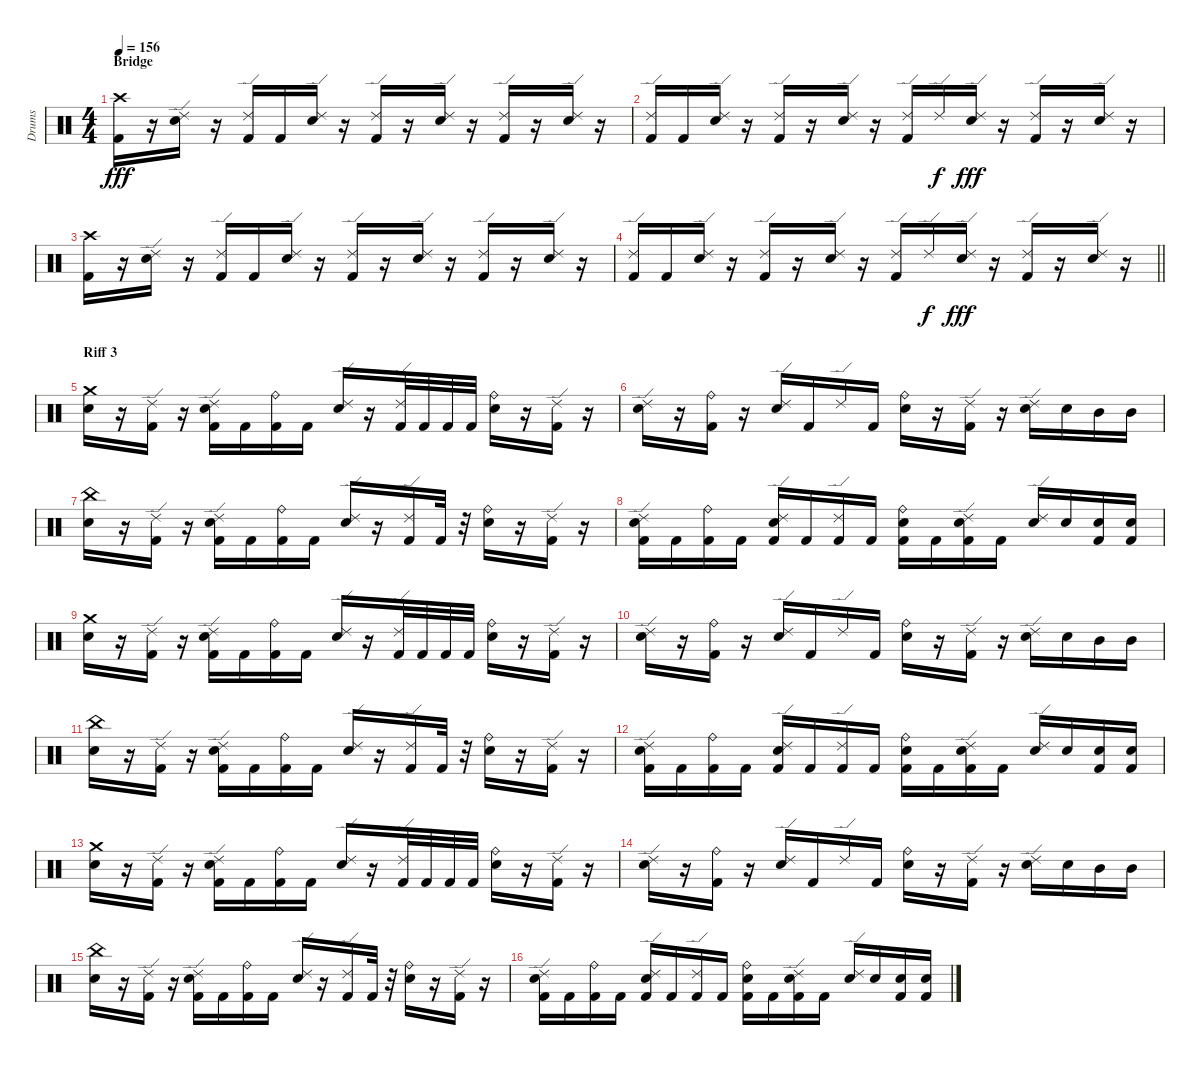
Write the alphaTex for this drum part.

\track ("Drums" "Drums") {instrument percussion}
\staff {score}
\articulation defaults
\ts (4 4)
\section ("" "Bridge")
\tempo 156
\clef neutral
\ks c
("Kick (hit) 2" "Crash high (hit)").16{dy fff} r.16 ("Snare (hit) 2" "Ride (edge) 2").16 r.16 ("Kick (hit) 2" "Ride (edge) 2").16 "Kick (hit) 2".16 ("Snare (hit) 2" "Ride (edge) 2").16 r.16 ("Kick (hit) 2" "Ride (edge) 2").16 r.16 ("Snare (hit) 2" "Ride (edge) 2").16 r.16 ("Kick (hit) 2" "Ride (edge) 2").16 r.16 ("Snare (hit) 2" "Ride (edge) 2").16 r.16 |
("Kick (hit) 2" "Ride (edge) 2").16 "Kick (hit) 2".16 ("Snare (hit) 2" "Ride (edge) 2").16 r.16 ("Kick (hit) 2" "Ride (edge) 2").16 r.16 ("Snare (hit) 2" "Ride (edge) 2").16 r.16 ("Kick (hit) 2" "Ride (edge) 2").16 "Ride (edge) 2".16{dy f} ("Snare (hit) 2" "Ride (edge) 2").16{dy fff} r.16 ("Kick (hit) 2" "Ride (edge) 2").16 r.16 ("Snare (hit) 2" "Ride (edge) 2").16 r.16 |
("Kick (hit) 2" "Crash high (hit)").16 r.16 ("Snare (hit) 2" "Ride (edge) 2").16 r.16 ("Kick (hit) 2" "Ride (edge) 2").16 "Kick (hit) 2".16 ("Snare (hit) 2" "Ride (edge) 2").16 r.16 ("Kick (hit) 2" "Ride (edge) 2").16 r.16 ("Snare (hit) 2" "Ride (edge) 2").16 r.16 ("Kick (hit) 2" "Ride (edge) 2").16 r.16 ("Snare (hit) 2" "Ride (edge) 2").16 r.16 |
\barLineRight lightlight
("Kick (hit) 2" "Ride (edge) 2").16 "Kick (hit) 2".16 ("Snare (hit) 2" "Ride (edge) 2").16 r.16 ("Kick (hit) 2" "Ride (edge) 2").16 r.16 ("Snare (hit) 2" "Ride (edge) 2").16 r.16 ("Kick (hit) 2" "Ride (edge) 2").16 "Ride (edge) 2".16{dy f} ("Snare (hit) 2" "Ride (edge) 2").16{dy fff} r.16 ("Kick (hit) 2" "Ride (edge) 2").16 r.16 ("Snare (hit) 2" "Ride (edge) 2").16 r.16 |
\section ("" "Riff 3")
("Snare (hit) 2" "Crash medium (hit)").16 r.16 ("Kick (hit) 2" "Ride (edge) 2").16 r.16 ("Kick (hit) 2" "Snare (hit) 2" "Ride (edge) 2").16 "Kick (hit) 2".16 ("Kick (hit) 2" "Ride (bell)").16 "Kick (hit) 2".16 ("Snare (hit) 2" "Ride (edge) 2").16 r.16 ("Kick (hit) 2" "Ride (edge) 2").32 "Kick (hit) 2".32 "Kick (hit) 2".32 "Kick (hit) 2".32 ("Snare (hit) 2" "Ride (bell)").16 r.16 ("Kick (hit) 2" "Ride (edge) 2").16 r.16 |
("Snare (hit) 2" "Ride (edge) 2").16 r.16 ("Kick (hit) 2" "Ride (bell)").16 r.16 ("Snare (hit) 2" "Ride (edge) 2").16 "Kick (hit) 2".16 "Ride (edge) 2".16 "Kick (hit) 2".16 ("Snare (hit) 2" "Ride (bell)").16 r.16 ("Kick (hit) 2" "Ride (edge) 2").16 r.16 ("Snare (hit) 2" "Ride (edge) 2").16 "Snare (hit) 2".16 "Mid Tom (hit)".16 "Mid Tom (hit)".16 |
("Snare (hit) 2" "China (hit)").16 r.16 ("Kick (hit) 2" "Ride (edge) 2").16 r.16 ("Kick (hit) 2" "Snare (hit) 2" "Ride (edge) 2").16 "Kick (hit) 2".16 ("Kick (hit) 2" "Ride (bell)").16 "Kick (hit) 2".16 ("Snare (hit) 2" "Ride (edge) 2").16 r.16 ("Kick (hit) 2" "Ride (edge) 2").16 "Kick (hit) 2".32 r.32 ("Snare (hit) 2" "Ride (bell)").16 r.16 ("Kick (hit) 2" "Ride (edge) 2").16 r.16 |
("Kick (hit) 2" "Snare (hit) 2" "Ride (edge) 2").16 "Kick (hit) 2".16 ("Kick (hit) 2" "Ride (bell)").16 "Kick (hit) 2".16 ("Kick (hit) 2" "Snare (hit) 2" "Ride (edge) 2").16 "Kick (hit) 2".16 ("Kick (hit) 2" "Ride (edge) 2").16 "Kick (hit) 2".16 ("Kick (hit) 2" "Snare (hit) 2" "Ride (bell)").16 "Kick (hit) 2".16 ("Kick (hit) 2" "Snare (hit) 2" "Ride (edge) 2").16 "Kick (hit) 2".16 ("Snare (hit) 2" "Ride (edge) 2").16 "Snare (hit) 2".16 ("Kick (hit) 2" "Snare (hit) 2").16 ("Kick (hit) 2" "Snare (hit) 2").16 |
("Snare (hit) 2" "Crash medium (hit)").16 r.16 ("Kick (hit) 2" "Ride (edge) 2").16 r.16 ("Kick (hit) 2" "Snare (hit) 2" "Ride (edge) 2").16 "Kick (hit) 2".16 ("Kick (hit) 2" "Ride (bell)").16 "Kick (hit) 2".16 ("Snare (hit) 2" "Ride (edge) 2").16 r.16 ("Kick (hit) 2" "Ride (edge) 2").32 "Kick (hit) 2".32 "Kick (hit) 2".32 "Kick (hit) 2".32 ("Snare (hit) 2" "Ride (bell)").16 r.16 ("Kick (hit) 2" "Ride (edge) 2").16 r.16 |
("Snare (hit) 2" "Ride (edge) 2").16 r.16 ("Kick (hit) 2" "Ride (bell)").16 r.16 ("Snare (hit) 2" "Ride (edge) 2").16 "Kick (hit) 2".16 "Ride (edge) 2".16 "Kick (hit) 2".16 ("Snare (hit) 2" "Ride (bell)").16 r.16 ("Kick (hit) 2" "Ride (edge) 2").16 r.16 ("Snare (hit) 2" "Ride (edge) 2").16 "Snare (hit) 2".16 "Mid Tom (hit)".16 "Mid Tom (hit)".16 |
("Snare (hit) 2" "China (hit)").16 r.16 ("Kick (hit) 2" "Ride (edge) 2").16 r.16 ("Kick (hit) 2" "Snare (hit) 2" "Ride (edge) 2").16 "Kick (hit) 2".16 ("Kick (hit) 2" "Ride (bell)").16 "Kick (hit) 2".16 ("Snare (hit) 2" "Ride (edge) 2").16 r.16 ("Kick (hit) 2" "Ride (edge) 2").16 "Kick (hit) 2".32 r.32 ("Snare (hit) 2" "Ride (bell)").16 r.16 ("Kick (hit) 2" "Ride (edge) 2").16 r.16 |
("Kick (hit) 2" "Snare (hit) 2" "Ride (edge) 2").16 "Kick (hit) 2".16 ("Kick (hit) 2" "Ride (bell)").16 "Kick (hit) 2".16 ("Kick (hit) 2" "Snare (hit) 2" "Ride (edge) 2").16 "Kick (hit) 2".16 ("Kick (hit) 2" "Ride (edge) 2").16 "Kick (hit) 2".16 ("Kick (hit) 2" "Snare (hit) 2" "Ride (bell)").16 "Kick (hit) 2".16 ("Kick (hit) 2" "Snare (hit) 2" "Ride (edge) 2").16 "Kick (hit) 2".16 ("Snare (hit) 2" "Ride (edge) 2").16 "Snare (hit) 2".16 ("Kick (hit) 2" "Snare (hit) 2").16 ("Kick (hit) 2" "Snare (hit) 2").16 |
("Snare (hit) 2" "Crash medium (hit)").16 r.16 ("Kick (hit) 2" "Ride (edge) 2").16 r.16 ("Kick (hit) 2" "Snare (hit) 2" "Ride (edge) 2").16 "Kick (hit) 2".16 ("Kick (hit) 2" "Ride (bell)").16 "Kick (hit) 2".16 ("Snare (hit) 2" "Ride (edge) 2").16 r.16 ("Kick (hit) 2" "Ride (edge) 2").32 "Kick (hit) 2".32 "Kick (hit) 2".32 "Kick (hit) 2".32 ("Snare (hit) 2" "Ride (bell)").16 r.16 ("Kick (hit) 2" "Ride (edge) 2").16 r.16 |
("Snare (hit) 2" "Ride (edge) 2").16 r.16 ("Kick (hit) 2" "Ride (bell)").16 r.16 ("Snare (hit) 2" "Ride (edge) 2").16 "Kick (hit) 2".16 "Ride (edge) 2".16 "Kick (hit) 2".16 ("Snare (hit) 2" "Ride (bell)").16 r.16 ("Kick (hit) 2" "Ride (edge) 2").16 r.16 ("Snare (hit) 2" "Ride (edge) 2").16 "Snare (hit) 2".16 "Mid Tom (hit)".16 "Mid Tom (hit)".16 |
("Snare (hit) 2" "China (hit)").16 r.16 ("Kick (hit) 2" "Ride (edge) 2").16 r.16 ("Kick (hit) 2" "Snare (hit) 2" "Ride (edge) 2").16 "Kick (hit) 2".16 ("Kick (hit) 2" "Ride (bell)").16 "Kick (hit) 2".16 ("Snare (hit) 2" "Ride (edge) 2").16 r.16 ("Kick (hit) 2" "Ride (edge) 2").16 "Kick (hit) 2".32 r.32 ("Snare (hit) 2" "Ride (bell)").16 r.16 ("Kick (hit) 2" "Ride (edge) 2").16 r.16 |
("Kick (hit) 2" "Snare (hit) 2" "Ride (edge) 2").16 "Kick (hit) 2".16 ("Kick (hit) 2" "Ride (bell)").16 "Kick (hit) 2".16 ("Kick (hit) 2" "Snare (hit) 2" "Ride (edge) 2").16 "Kick (hit) 2".16 ("Kick (hit) 2" "Ride (edge) 2").16 "Kick (hit) 2".16 ("Kick (hit) 2" "Snare (hit) 2" "Ride (bell)").16 "Kick (hit) 2".16 ("Kick (hit) 2" "Snare (hit) 2" "Ride (edge) 2").16 "Kick (hit) 2".16 ("Snare (hit) 2" "Ride (edge) 2").16 "Snare (hit) 2".16 ("Kick (hit) 2" "Snare (hit) 2").16 ("Kick (hit) 2" "Snare (hit) 2").16
